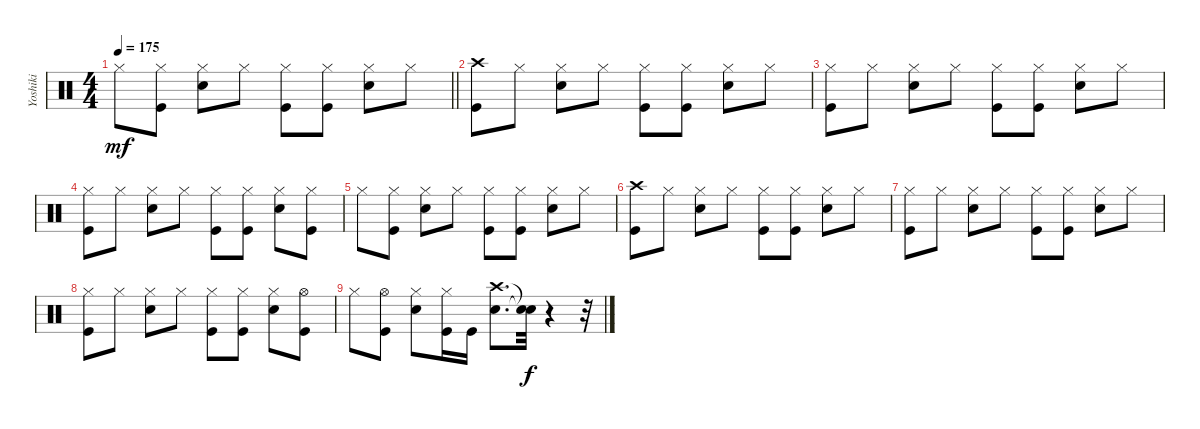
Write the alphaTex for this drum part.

\track ("Yoshiki" "Yoshiki") {instrument percussion}
\staff {score}
\articulation defaults
\ts (4 4)
\tempo 175
\clef neutral
\barLineRight lightlight
\ks c "Hi-Hat (closed)".8{dy mf}
("Hi-Hat (closed)" "Kick (hit)").8 ("Snare (hit) 2" "Hi-Hat (closed)").8 "Hi-Hat (closed)".8 ("Kick (hit)" "Hi-Hat (closed)").8 ("Kick (hit)" "Hi-Hat (closed)").8 ("Snare (hit) 2" "Hi-Hat (closed)").8 "Hi-Hat (closed)".8 |
("Crash high (hit)" "Kick (hit)").8 "Hi-Hat (closed)".8 ("Snare (hit) 2" "Hi-Hat (closed)").8 "Hi-Hat (closed)".8 ("Hi-Hat (closed)" "Kick (hit)").8 ("Hi-Hat (closed)" "Kick (hit)").8 ("Snare (hit) 2" "Hi-Hat (closed)").8 "Hi-Hat (closed)".8 |
("Hi-Hat (closed)" "Kick (hit)").8 "Hi-Hat (closed)".8 ("Snare (hit) 2" "Hi-Hat (closed)").8 "Hi-Hat (closed)".8 ("Hi-Hat (closed)" "Kick (hit)").8 ("Hi-Hat (closed)" "Kick (hit)").8 ("Snare (hit) 2" "Hi-Hat (closed)").8 "Hi-Hat (closed)".8 |
("Hi-Hat (closed)" "Kick (hit)").8 "Hi-Hat (closed)".8 ("Snare (hit) 2" "Hi-Hat (closed)").8 "Hi-Hat (closed)".8 ("Hi-Hat (closed)" "Kick (hit)").8 ("Hi-Hat (closed)" "Kick (hit)").8 ("Snare (hit) 2" "Hi-Hat (closed)").8 ("Hi-Hat (closed)" "Kick (hit)").8 |
"Hi-Hat (closed)".8 ("Hi-Hat (closed)" "Kick (hit)").8 ("Snare (hit) 2" "Hi-Hat (closed)").8 "Hi-Hat (closed)".8 ("Kick (hit)" "Hi-Hat (closed)").8 ("Kick (hit)" "Hi-Hat (closed)").8 ("Snare (hit) 2" "Hi-Hat (closed)").8 "Hi-Hat (closed)".8 |
("Crash high (hit)" "Kick (hit)").8 "Hi-Hat (closed)".8 ("Snare (hit) 2" "Hi-Hat (closed)").8 "Hi-Hat (closed)".8 ("Hi-Hat (closed)" "Kick (hit)").8 ("Hi-Hat (closed)" "Kick (hit)").8 ("Snare (hit) 2" "Hi-Hat (closed)").8 "Hi-Hat (closed)".8 |
("Hi-Hat (closed)" "Kick (hit)").8 "Hi-Hat (closed)".8 ("Snare (hit) 2" "Hi-Hat (closed)").8 "Hi-Hat (closed)".8 ("Hi-Hat (closed)" "Kick (hit)").8 ("Hi-Hat (closed)" "Kick (hit)").8 ("Snare (hit) 2" "Hi-Hat (closed)").8 "Hi-Hat (closed)".8 |
("Hi-Hat (closed)" "Kick (hit)").8 "Hi-Hat (closed)".8 ("Snare (hit) 2" "Hi-Hat (closed)").8 "Hi-Hat (closed)".8 ("Hi-Hat (closed)" "Kick (hit)").8 ("Hi-Hat (closed)" "Kick (hit)").8 ("Snare (hit) 2" "Hi-Hat (closed)").8 ("Hi-Hat (open)" "Kick (hit)").8 |
"Hi-Hat (closed)".8 ("Hi-Hat (open)" "Kick (hit)").8 ("Snare (hit) 2" "Hi-Hat (closed)").8 ("Hi-Hat (closed)" "Kick (hit)").16 "Kick (hit)".16 ("Snare (hit) 2" "Crash high (hit)").8{d} ("Snare (hit)"{t} "Snare (hit)"{t}).32{dy f} r.4 r.32
